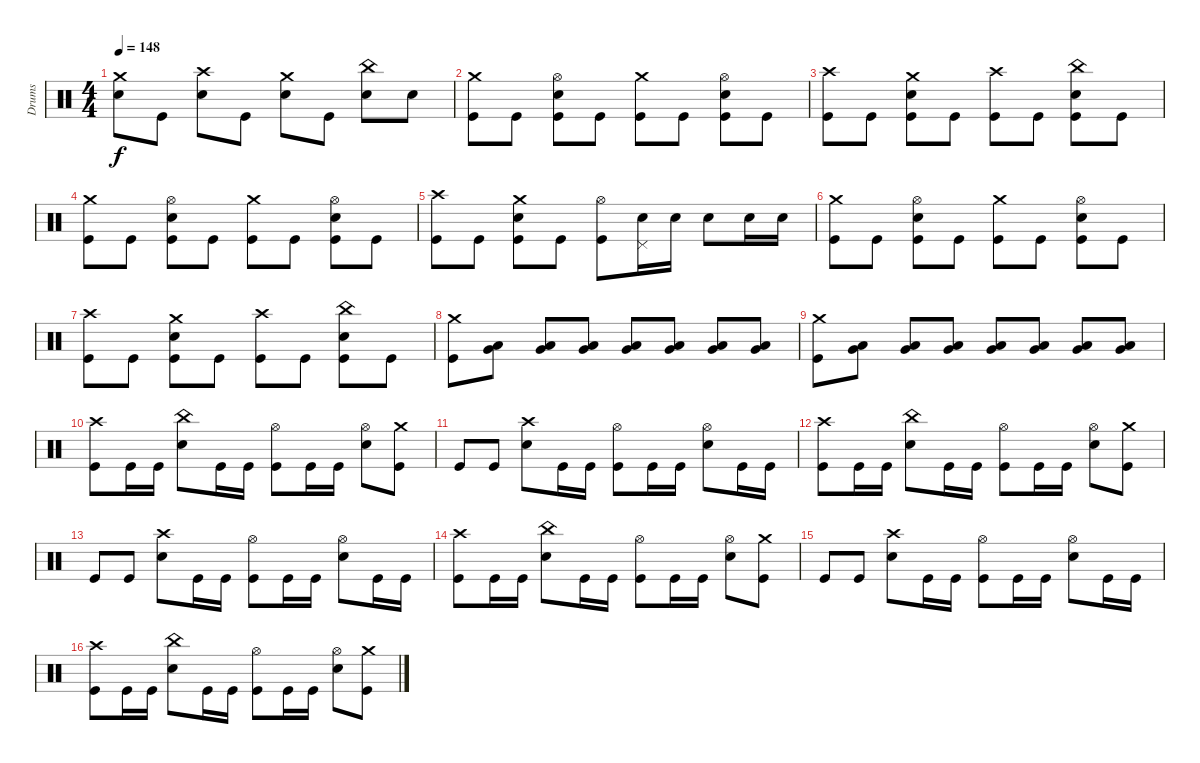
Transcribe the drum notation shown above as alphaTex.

\track ("Drums" "Drums") {instrument percussion}
\staff {score}
\articulation defaults
\ts (4 4)
\tempo 148
\clef neutral
\ks c
("Crash medium (hit)" "Electric Snare (hit)").8{dy f} "Kick (hit)".8 ("Crash high (hit)" "Electric Snare (hit)").8 "Kick (hit)".8 ("Crash medium (hit)" "Electric Snare (hit)").8 "Kick (hit)".8 ("China (hit)" "Electric Snare (hit)").8 "Electric Snare (hit)".8 |
("Crash medium (hit)" "Kick (hit)").8 "Kick (hit)".8 ("Hi-Hat (open)" "Electric Snare (hit)" "Kick (hit)").8 "Kick (hit)".8 ("Crash medium (hit)" "Kick (hit)").8 "Kick (hit)".8 ("Hi-Hat (open)" "Electric Snare (hit)" "Kick (hit)").8 "Kick (hit)".8 |
("Crash high (hit)" "Kick (hit)").8 "Kick (hit)".8 ("Crash medium (hit)" "Electric Snare (hit)" "Kick (hit)").8 "Kick (hit)".8 ("Crash high (hit)" "Kick (hit)").8 "Kick (hit)".8 ("China (hit)" "Electric Snare (hit)" "Kick (hit)").8 "Kick (hit)".8 |
("Crash medium (hit)" "Kick (hit)").8 "Kick (hit)".8 ("Hi-Hat (open)" "Electric Snare (hit)" "Kick (hit)").8 "Kick (hit)".8 ("Crash medium (hit)" "Kick (hit)").8 "Kick (hit)".8 ("Hi-Hat (open)" "Electric Snare (hit)" "Kick (hit)").8 "Kick (hit)".8 |
("Crash high (hit)" "Kick (hit)").8 "Kick (hit)".8 ("Crash medium (hit)" "Electric Snare (hit)" "Kick (hit)").8 "Kick (hit)".8 ("Hi-Hat (open)" "Kick (hit)").8 ("Pedal Hi-Hat (hit)" "Electric Snare (hit)").16 "Electric Snare (hit)".16 "Electric Snare (hit)".8 "Electric Snare (hit)".16 "Electric Snare (hit)".16 |
("Crash medium (hit)" "Kick (hit)").8 "Kick (hit)".8 ("Hi-Hat (open)" "Electric Snare (hit)" "Kick (hit)").8 "Kick (hit)".8 ("Crash medium (hit)" "Kick (hit)").8 "Kick (hit)".8 ("Hi-Hat (open)" "Electric Snare (hit)" "Kick (hit)").8 "Kick (hit)".8 |
("Crash high (hit)" "Kick (hit)").8 "Kick (hit)".8 ("Crash medium (hit)" "Electric Snare (hit)" "Kick (hit)").8 "Kick (hit)".8 ("Crash high (hit)" "Kick (hit)").8 "Kick (hit)".8 ("China (hit)" "Electric Snare (hit)" "Kick (hit)").8 "Kick (hit)".8 |
("Crash medium (hit)" "Kick (hit)").8 ("Low Tom (hit)" "Very Low Tom (hit)").8 ("Low Tom (hit)" "Very Low Tom (hit)").8 ("Low Tom (hit)" "Very Low Tom (hit)").8 ("Low Tom (hit)" "Very Low Tom (hit)").8 ("Low Tom (hit)" "Very Low Tom (hit)").8 ("Low Tom (hit)" "Very Low Tom (hit)").8 ("Low Tom (hit)" "Very Low Tom (hit)").8 |
("Crash medium (hit)" "Kick (hit)").8 ("Low Tom (hit)" "Very Low Tom (hit)").8 ("Low Tom (hit)" "Very Low Tom (hit)").8 ("Low Tom (hit)" "Very Low Tom (hit)").8 ("Low Tom (hit)" "Very Low Tom (hit)").8 ("Low Tom (hit)" "Very Low Tom (hit)").8 ("Low Tom (hit)" "Very Low Tom (hit)").8 ("Low Tom (hit)" "Very Low Tom (hit)").8 |
("Crash high (hit)" "Kick (hit)").8 "Kick (hit)".16 "Kick (hit)".16 ("China (hit)" "Electric Snare (hit)").8 "Kick (hit)".16 "Kick (hit)".16 ("Hi-Hat (open)" "Kick (hit)").8 "Kick (hit)".16 "Kick (hit)".16 ("Hi-Hat (open)" "Electric Snare (hit)").8 ("Crash medium (hit)" "Kick (hit)").8 |
"Kick (hit)".8 "Kick (hit)".8 ("Crash high (hit)" "Electric Snare (hit)").8 "Kick (hit)".16 "Kick (hit)".16 ("Hi-Hat (open)" "Kick (hit)").8 "Kick (hit)".16 "Kick (hit)".16 ("Hi-Hat (open)" "Electric Snare (hit)").8 "Kick (hit)".16 "Kick (hit)".16 |
("Crash high (hit)" "Kick (hit)").8 "Kick (hit)".16 "Kick (hit)".16 ("China (hit)" "Electric Snare (hit)").8 "Kick (hit)".16 "Kick (hit)".16 ("Hi-Hat (open)" "Kick (hit)").8 "Kick (hit)".16 "Kick (hit)".16 ("Hi-Hat (open)" "Electric Snare (hit)").8 ("Crash medium (hit)" "Kick (hit)").8 |
"Kick (hit)".8 "Kick (hit)".8 ("Crash high (hit)" "Electric Snare (hit)").8 "Kick (hit)".16 "Kick (hit)".16 ("Hi-Hat (open)" "Kick (hit)").8 "Kick (hit)".16 "Kick (hit)".16 ("Hi-Hat (open)" "Electric Snare (hit)").8 "Kick (hit)".16 "Kick (hit)".16 |
("Crash high (hit)" "Kick (hit)").8 "Kick (hit)".16 "Kick (hit)".16 ("China (hit)" "Electric Snare (hit)").8 "Kick (hit)".16 "Kick (hit)".16 ("Hi-Hat (open)" "Kick (hit)").8 "Kick (hit)".16 "Kick (hit)".16 ("Hi-Hat (open)" "Electric Snare (hit)").8 ("Crash medium (hit)" "Kick (hit)").8 |
"Kick (hit)".8 "Kick (hit)".8 ("Crash high (hit)" "Electric Snare (hit)").8 "Kick (hit)".16 "Kick (hit)".16 ("Hi-Hat (open)" "Kick (hit)").8 "Kick (hit)".16 "Kick (hit)".16 ("Hi-Hat (open)" "Electric Snare (hit)").8 "Kick (hit)".16 "Kick (hit)".16 |
("Crash high (hit)" "Kick (hit)").8 "Kick (hit)".16 "Kick (hit)".16 ("China (hit)" "Electric Snare (hit)").8 "Kick (hit)".16 "Kick (hit)".16 ("Hi-Hat (open)" "Kick (hit)").8 "Kick (hit)".16 "Kick (hit)".16 ("Hi-Hat (open)" "Electric Snare (hit)").8 ("Crash medium (hit)" "Kick (hit)").8
